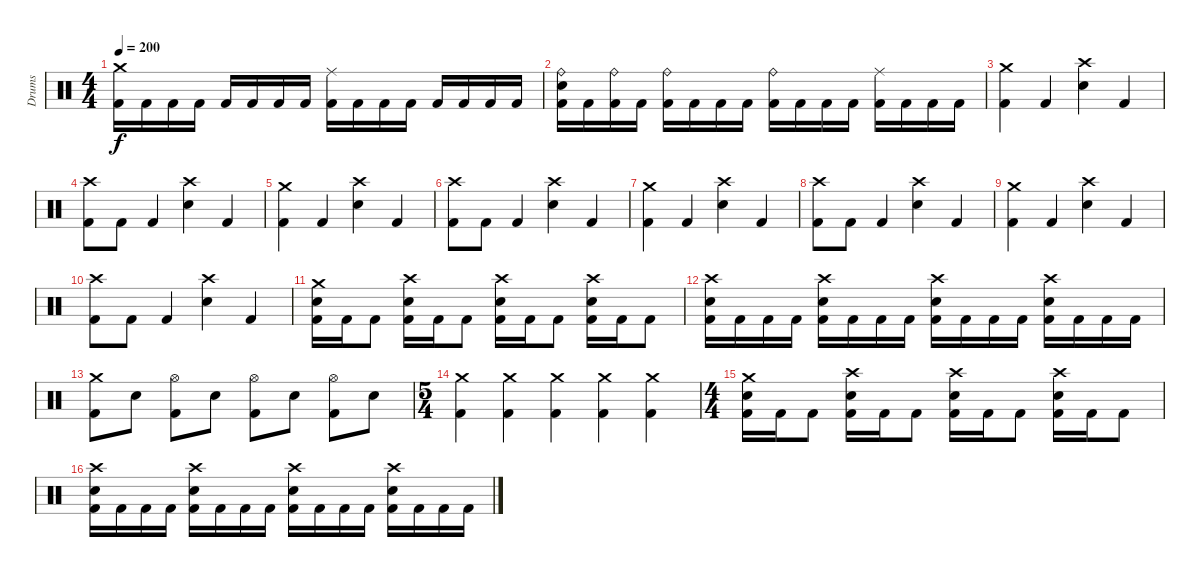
\track ("Drums" "Drums") {instrument percussion}
\staff {score}
\articulation defaults
\ts (4 4)
\tempo 200
\clef neutral
\ks c
("Crash medium (hit)" "Kick (hit) 2").16{dy f} "Kick (hit) 2".16 "Kick (hit) 2".16 "Kick (hit) 2".16 "Kick (hit) 2".16 "Kick (hit) 2".16 "Kick (hit) 2".16 "Kick (hit) 2".16 ("Ride (middle)" "Kick (hit) 2").16 "Kick (hit) 2".16 "Kick (hit) 2".16 "Kick (hit) 2".16 "Kick (hit) 2".16 "Kick (hit) 2".16 "Kick (hit) 2".16 "Kick (hit) 2".16 |
("Ride (bell)" "Electric Snare (hit)" "Kick (hit) 2").16 "Kick (hit) 2".16 ("Ride (bell)" "Kick (hit) 2").16 "Kick (hit) 2".16 ("Ride (bell)" "Kick (hit) 2").16 "Kick (hit) 2".16 "Kick (hit) 2".16 "Kick (hit) 2".16 ("Ride (bell)" "Kick (hit) 2").16 "Kick (hit) 2".16 "Kick (hit) 2".16 "Kick (hit) 2".16 ("Ride (middle)" "Kick (hit) 2").16 "Kick (hit) 2".16 "Kick (hit) 2".16 "Kick (hit) 2".16 |
("Crash medium (hit)" "Kick (hit) 2").4 "Kick (hit) 2".4 ("Crash high (hit)" "Electric Snare (hit)").4 "Kick (hit) 2".4 |
("Crash high (hit)" "Kick (hit) 2").8 "Kick (hit) 2".8 "Kick (hit) 2".4 ("Crash high (hit)" "Electric Snare (hit)").4 "Kick (hit) 2".4 |
("Crash medium (hit)" "Kick (hit) 2").4 "Kick (hit) 2".4 ("Crash high (hit)" "Electric Snare (hit)").4 "Kick (hit) 2".4 |
("Crash high (hit)" "Kick (hit) 2").8 "Kick (hit) 2".8 "Kick (hit) 2".4 ("Crash high (hit)" "Electric Snare (hit)").4 "Kick (hit) 2".4 |
("Crash medium (hit)" "Kick (hit) 2").4 "Kick (hit) 2".4 ("Crash high (hit)" "Electric Snare (hit)").4 "Kick (hit) 2".4 |
("Crash high (hit)" "Kick (hit) 2").8 "Kick (hit) 2".8 "Kick (hit) 2".4 ("Crash high (hit)" "Electric Snare (hit)").4 "Kick (hit) 2".4 |
("Crash medium (hit)" "Kick (hit) 2").4 "Kick (hit) 2".4 ("Crash high (hit)" "Electric Snare (hit)").4 "Kick (hit) 2".4 |
("Crash high (hit)" "Kick (hit) 2").8 "Kick (hit) 2".8 "Kick (hit) 2".4 ("Crash high (hit)" "Electric Snare (hit)").4 "Kick (hit) 2".4 |
\section ("" "")
("Crash medium (hit)" "Electric Snare (hit)" "Kick (hit) 2").16 "Kick (hit) 2".16 "Kick (hit) 2".8 ("Crash high (hit)" "Electric Snare (hit)" "Kick (hit) 2").16 "Kick (hit) 2".16 "Kick (hit) 2".8 ("Crash high (hit)" "Electric Snare (hit)" "Kick (hit) 2").16 "Kick (hit) 2".16 "Kick (hit) 2".8 ("Crash high (hit)" "Electric Snare (hit)" "Kick (hit) 2").16 "Kick (hit) 2".16 "Kick (hit) 2".8 |
("Crash high (hit)" "Electric Snare (hit)" "Kick (hit) 2").16 "Kick (hit) 2".16 "Kick (hit) 2".16 "Kick (hit) 2".16 ("Crash high (hit)" "Electric Snare (hit)" "Kick (hit) 2").16 "Kick (hit) 2".16 "Kick (hit) 2".16 "Kick (hit) 2".16 ("Crash high (hit)" "Electric Snare (hit)" "Kick (hit) 2").16 "Kick (hit) 2".16 "Kick (hit) 2".16 "Kick (hit) 2".16 ("Crash high (hit)" "Electric Snare (hit)" "Kick (hit) 2").16 "Kick (hit) 2".16 "Kick (hit) 2".16 "Kick (hit) 2".16 |
("Crash medium (hit)" "Kick (hit) 2").8 "Electric Snare (hit)".8 ("Hi-Hat (open)" "Kick (hit) 2").8 "Electric Snare (hit)".8 ("Hi-Hat (open)" "Kick (hit) 2").8 "Electric Snare (hit)".8 ("Hi-Hat (open)" "Kick (hit) 2").8 "Electric Snare (hit)".8 |
\ts (5 4)
("Crash medium (hit)" "Kick (hit) 2").4 ("Crash medium (hit)" "Kick (hit) 2").4 ("Crash medium (hit)" "Kick (hit) 2").4 ("Crash medium (hit)" "Kick (hit) 2").4 ("Crash medium (hit)" "Kick (hit) 2").4 |
\ts (4 4)
("Crash medium (hit)" "Electric Snare (hit)" "Kick (hit) 2").16 "Kick (hit) 2".16 "Kick (hit) 2".8 ("Crash high (hit)" "Electric Snare (hit)" "Kick (hit) 2").16 "Kick (hit) 2".16 "Kick (hit) 2".8 ("Crash high (hit)" "Electric Snare (hit)" "Kick (hit) 2").16 "Kick (hit) 2".16 "Kick (hit) 2".8 ("Crash high (hit)" "Electric Snare (hit)" "Kick (hit) 2").16 "Kick (hit) 2".16 "Kick (hit) 2".8 |
("Crash high (hit)" "Electric Snare (hit)" "Kick (hit) 2").16 "Kick (hit) 2".16 "Kick (hit) 2".16 "Kick (hit) 2".16 ("Crash high (hit)" "Electric Snare (hit)" "Kick (hit) 2").16 "Kick (hit) 2".16 "Kick (hit) 2".16 "Kick (hit) 2".16 ("Crash high (hit)" "Electric Snare (hit)" "Kick (hit) 2").16 "Kick (hit) 2".16 "Kick (hit) 2".16 "Kick (hit) 2".16 ("Crash high (hit)" "Electric Snare (hit)" "Kick (hit) 2").16 "Kick (hit) 2".16 "Kick (hit) 2".16 "Kick (hit) 2".16
